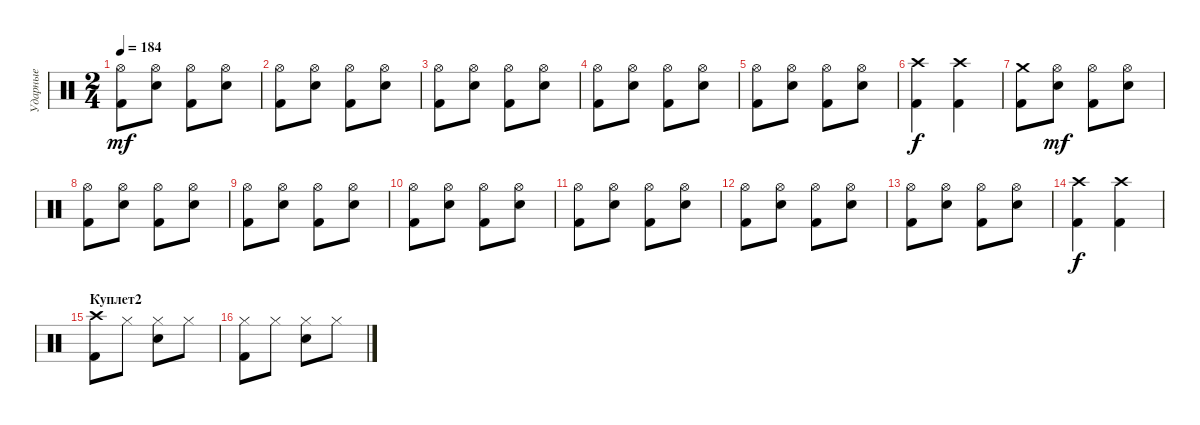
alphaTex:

\track ("Ударные" "Ударные") {instrument percussion}
\staff {score}
\articulation defaults
\ts (2 4)
\tempo 184
\clef neutral
\ks c
("Kick (hit) 2" "Hi-Hat (open)").8{dy mf} ("Snare (hit) 2" "Hi-Hat (open)").8 ("Kick (hit) 2" "Hi-Hat (open)").8 ("Snare (hit) 2" "Hi-Hat (open)").8 |
("Kick (hit) 2" "Hi-Hat (open)").8 ("Snare (hit) 2" "Hi-Hat (open)").8 ("Kick (hit) 2" "Hi-Hat (open)").8 ("Snare (hit) 2" "Hi-Hat (open)").8 |
("Kick (hit) 2" "Hi-Hat (open)").8 ("Snare (hit) 2" "Hi-Hat (open)").8 ("Kick (hit) 2" "Hi-Hat (open)").8 ("Snare (hit) 2" "Hi-Hat (open)").8 |
("Kick (hit) 2" "Hi-Hat (open)").8 ("Snare (hit) 2" "Hi-Hat (open)").8 ("Kick (hit) 2" "Hi-Hat (open)").8 ("Snare (hit) 2" "Hi-Hat (open)").8 |
("Kick (hit) 2" "Hi-Hat (open)").8 ("Snare (hit) 2" "Hi-Hat (open)").8 ("Kick (hit) 2" "Hi-Hat (open)").8 ("Snare (hit) 2" "Hi-Hat (open)").8 |
("Kick (hit) 2" "Crash high (hit)").4{dy f} ("Kick (hit) 2" "Crash high (hit)").4 |
("Kick (hit) 2" "Crash medium (hit)").8 ("Snare (hit) 2" "Hi-Hat (open)").8{dy mf} ("Kick (hit) 2" "Hi-Hat (open)").8 ("Snare (hit) 2" "Hi-Hat (open)").8 |
("Kick (hit) 2" "Hi-Hat (open)").8 ("Snare (hit) 2" "Hi-Hat (open)").8 ("Kick (hit) 2" "Hi-Hat (open)").8 ("Snare (hit) 2" "Hi-Hat (open)").8 |
("Kick (hit) 2" "Hi-Hat (open)").8 ("Snare (hit) 2" "Hi-Hat (open)").8 ("Kick (hit) 2" "Hi-Hat (open)").8 ("Snare (hit) 2" "Hi-Hat (open)").8 |
("Kick (hit) 2" "Hi-Hat (open)").8 ("Snare (hit) 2" "Hi-Hat (open)").8 ("Kick (hit) 2" "Hi-Hat (open)").8 ("Snare (hit) 2" "Hi-Hat (open)").8 |
("Kick (hit) 2" "Hi-Hat (open)").8 ("Snare (hit) 2" "Hi-Hat (open)").8 ("Kick (hit) 2" "Hi-Hat (open)").8 ("Snare (hit) 2" "Hi-Hat (open)").8 |
("Kick (hit) 2" "Hi-Hat (open)").8 ("Snare (hit) 2" "Hi-Hat (open)").8 ("Kick (hit) 2" "Hi-Hat (open)").8 ("Snare (hit) 2" "Hi-Hat (open)").8 |
("Kick (hit) 2" "Hi-Hat (open)").8 ("Snare (hit) 2" "Hi-Hat (open)").8 ("Kick (hit) 2" "Hi-Hat (open)").8 ("Snare (hit) 2" "Hi-Hat (open)").8 |
("Kick (hit) 2" "Crash high (hit)").4{dy f} ("Kick (hit) 2" "Crash high (hit)").4 |
\section ("" "Куплет2")
("Crash high (hit)" "Kick (hit) 2").8 "Hi-Hat (closed)".8 ("Hi-Hat (closed)" "Snare (hit) 2").8 "Hi-Hat (closed)".8 |
("Hi-Hat (closed)" "Kick (hit) 2").8 "Hi-Hat (closed)".8 ("Hi-Hat (closed)" "Snare (hit) 2").8 "Hi-Hat (closed)".8
